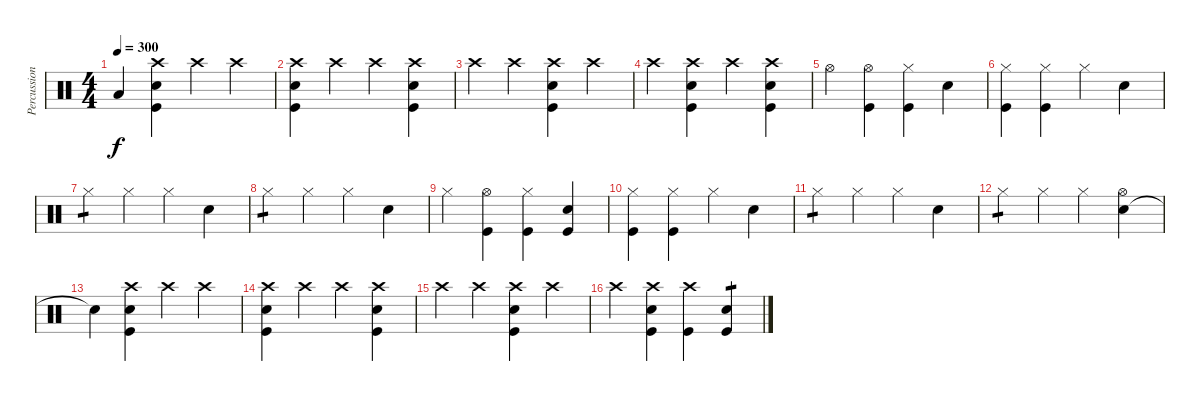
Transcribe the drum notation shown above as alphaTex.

\track ("Percussion" "Percussion") {instrument percussion}
\staff {score}
\articulation defaults
\ts (4 4)
\tempo 300
\clef neutral
\ks c "Low Floor Tom (hit)".4{dy f}
("Kick (hit)" "Electric Snare (hit)" "Crash high (hit)").4 "Crash high (hit)".4 "Crash high (hit)".4 |
("Kick (hit)" "Electric Snare (hit)" "Crash high (hit)").4 "Crash high (hit)".4 "Crash high (hit)".4 ("Kick (hit)" "Electric Snare (hit)" "Crash high (hit)").4 |
"Crash high (hit)".4 "Crash high (hit)".4 ("Kick (hit)" "Electric Snare (hit)" "Crash high (hit)").4 "Crash high (hit)".4 |
"Crash high (hit)".4 ("Kick (hit)" "Electric Snare (hit)" "Crash high (hit)").4 "Crash high (hit)".4 ("Kick (hit)" "Electric Snare (hit)" "Crash high (hit)").4 |
"Hi-Hat (open)".4 ("Kick (hit)" "Hi-Hat (open)").4 ("Kick (hit)" "Hi-Hat (closed)").4 "Electric Snare (hit)".4 |
("Kick (hit)" "Hi-Hat (closed)").4 ("Kick (hit)" "Hi-Hat (closed)").4 "Hi-Hat (closed)".4 "Electric Snare (hit)".4 |
"Hi-Hat (closed)".4{tp 1} "Hi-Hat (closed)".4 "Hi-Hat (closed)".4 "Electric Snare (hit)".4 |
"Hi-Hat (closed)".4{tp 1} "Hi-Hat (closed)".4 "Hi-Hat (closed)".4 "Electric Snare (hit)".4 |
"Hi-Hat (closed)".4 ("Kick (hit)" "Hi-Hat (open)").4 ("Kick (hit)" "Hi-Hat (closed)").4 ("Kick (hit)" "Electric Snare (hit)").4 |
("Kick (hit)" "Hi-Hat (closed)").4 ("Kick (hit)" "Hi-Hat (closed)").4 "Hi-Hat (closed)".4 "Electric Snare (hit)".4 |
"Hi-Hat (closed)".4{tp 1} "Hi-Hat (closed)".4 "Hi-Hat (closed)".4 "Electric Snare (hit)".4 |
"Hi-Hat (closed)".4{tp 1} "Hi-Hat (closed)".4 "Hi-Hat (closed)".4 ("Electric Snare (hit)" "Hi-Hat (open)").4 |
"Snare (hit)"{t}.4 ("Kick (hit)" "Electric Snare (hit)" "Crash high (hit)").4 "Crash high (hit)".4 "Crash high (hit)".4 |
("Kick (hit)" "Electric Snare (hit)" "Crash high (hit)").4 "Crash high (hit)".4 "Crash high (hit)".4 ("Kick (hit)" "Electric Snare (hit)" "Crash high (hit)").4 |
"Crash high (hit)".4 "Crash high (hit)".4 ("Kick (hit)" "Electric Snare (hit)" "Crash high (hit)").4 "Crash high (hit)".4 |
"Crash high (hit)".4 ("Kick (hit)" "Electric Snare (hit)" "Crash high (hit)").4 ("Kick (hit)" "Crash high (hit)").4 ("Kick (hit)" "Electric Snare (hit)").4{tp 1}
